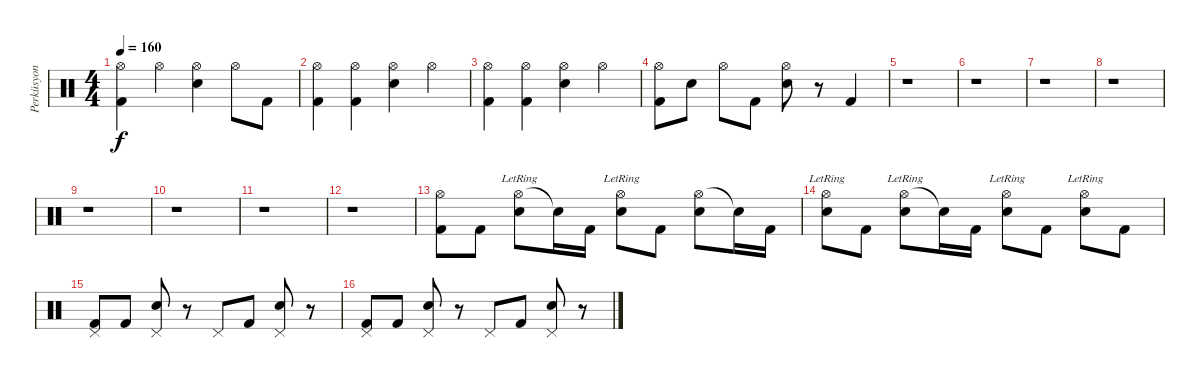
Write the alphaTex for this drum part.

\track ("Perküsyon" "Perküsyon") {instrument percussion}
\staff {score}
\articulation defaults
\ts (4 4)
\tempo 160
\clef neutral
\ks c
("Hi-Hat (open)" "Kick (hit) 2").4{dy f} "Hi-Hat (open)".4 ("Hi-Hat (open)" "Electric Snare (hit)").4 "Hi-Hat (open)".8 "Kick (hit) 2".8 |
("Hi-Hat (open)" "Kick (hit) 2").4 ("Hi-Hat (open)" "Kick (hit) 2").4 ("Hi-Hat (open)" "Electric Snare (hit)").4 "Hi-Hat (open)".4 |
("Hi-Hat (open)" "Kick (hit) 2").4 ("Hi-Hat (open)" "Kick (hit) 2").4 ("Hi-Hat (open)" "Electric Snare (hit)").4 "Hi-Hat (open)".4 |
("Hi-Hat (open)" "Kick (hit) 2").8 "Electric Snare (hit)".8 "Hi-Hat (open)".8 "Kick (hit) 2".8 ("Hi-Hat (open)" "Electric Snare (hit)").8 r.8 "Kick (hit) 2".4 |
r.1 |
r.1 |
r.1 |
r.1 |
r.1 |
r.1 |
r.1 |
r.1 |
("Hi-Hat (open)" "Kick (hit) 2").8 "Kick (hit) 2".8 ("Hi-Hat (open)" "Electric Snare (hit)"{lr}).8 "Snare (hit)"{t}.16 "Kick (hit) 2".16 ("Hi-Hat (open)" "Electric Snare (hit)"{lr}).8 "Kick (hit) 2".8 ("Hi-Hat (open)" "Electric Snare (hit)").8 "Snare (hit)"{t}.16 "Kick (hit) 2".16 |
("Hi-Hat (open)" "Electric Snare (hit)"{lr}).8 "Kick (hit) 2".8 ("Hi-Hat (open)" "Electric Snare (hit)"{lr}).8 "Snare (hit)"{t}.16 "Kick (hit) 2".16 ("Hi-Hat (open)" "Electric Snare (hit)"{lr}).8 "Kick (hit) 2".8 ("Hi-Hat (open)" "Electric Snare (hit)"{lr}).8 "Kick (hit) 2".8 |
("Pedal Hi-Hat (hit)" "Kick (hit) 2").8 "Kick (hit) 2".8 ("Pedal Hi-Hat (hit)" "Electric Snare (hit)").8 r.8 "Pedal Hi-Hat (hit)".8 "Kick (hit) 2".8 ("Pedal Hi-Hat (hit)" "Electric Snare (hit)").8 r.8 |
("Pedal Hi-Hat (hit)" "Kick (hit) 2").8 "Kick (hit) 2".8 ("Pedal Hi-Hat (hit)" "Electric Snare (hit)").8 r.8 "Pedal Hi-Hat (hit)".8 "Kick (hit) 2".8 ("Pedal Hi-Hat (hit)" "Electric Snare (hit)").8 r.8
